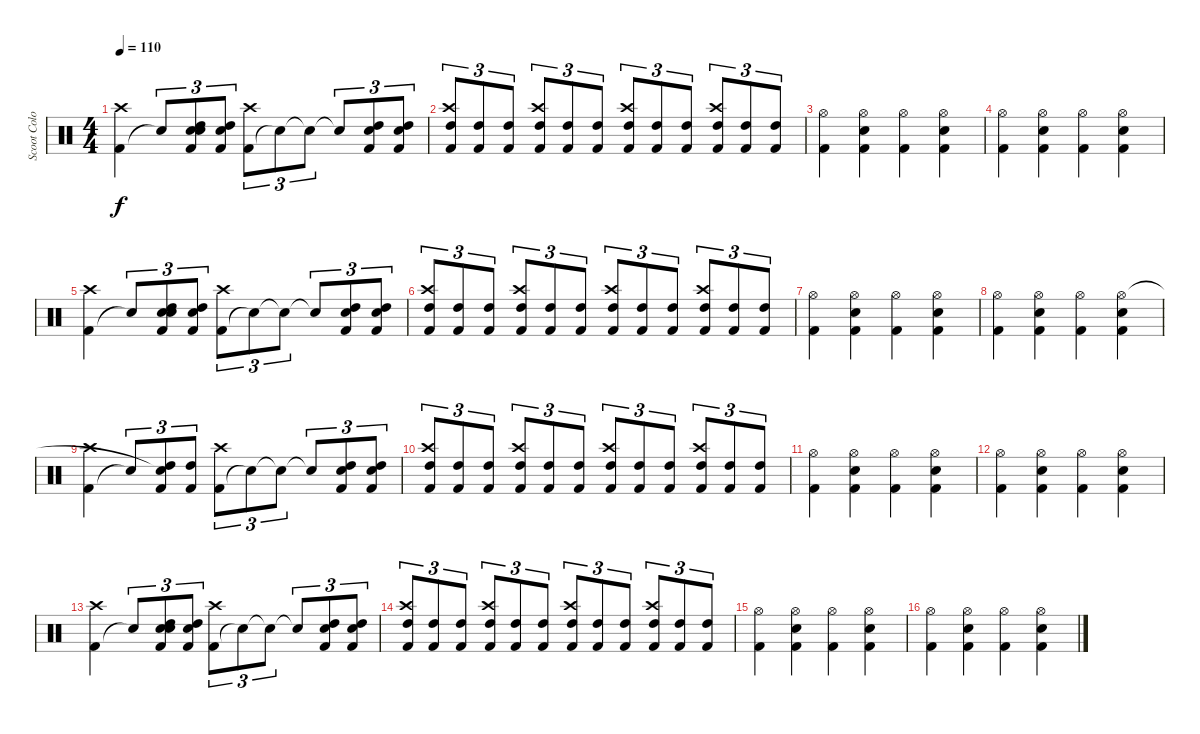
\track ("Scoot Colombus" "Scoot Colo") {instrument percussion}
\staff {score}
\articulation defaults
\ts (4 4)
\tempo 110
\clef neutral
\ks c
("Kick (hit) 2" "Crash high (hit)").4{dy f} "Snare (hit)"{t}.8{tu (3 2)} ("Kick (hit) 2" "High Tom (hit)" "Snare (hit) 2" "Snare (hit)").8{tu (3 2)} ("Kick (hit) 2" "High Tom (hit)" "Snare (hit) 2").8{tu (3 2)} ("Kick (hit) 2" "Crash high (hit)").8{tu (3 2)} "Snare (hit)"{t}.8{tu (3 2)} "Snare (hit)"{t}.8{tu (3 2)} "Snare (hit)"{t}.8{tu (3 2)} ("Kick (hit) 2" "High Tom (hit)" "Snare (hit) 2").8{tu (3 2)} ("Kick (hit) 2" "High Tom (hit)" "Snare (hit) 2").8{tu (3 2)} |
("Kick (hit) 2" "High Tom (hit)" "Crash high (hit)").8{tu (3 2)} ("Kick (hit) 2" "High Tom (hit)").8{tu (3 2)} ("Kick (hit) 2" "High Tom (hit)").8{tu (3 2)} ("Kick (hit) 2" "High Tom (hit)" "Crash high (hit)").8{tu (3 2)} ("Kick (hit) 2" "High Tom (hit)").8{tu (3 2)} ("Kick (hit) 2" "High Tom (hit)").8{tu (3 2)} ("Kick (hit) 2" "High Tom (hit)" "Crash high (hit)").8{tu (3 2)} ("Kick (hit) 2" "High Tom (hit)").8{tu (3 2)} ("Kick (hit) 2" "High Tom (hit)").8{tu (3 2)} ("Kick (hit) 2" "High Tom (hit)" "Crash high (hit)").8{tu (3 2)} ("Kick (hit) 2" "High Tom (hit)").8{tu (3 2)} ("Kick (hit) 2" "High Tom (hit)").8{tu (3 2)} |
("Kick (hit) 2" "Hi-Hat (open)").4 ("Kick (hit) 2" "Snare (hit) 2" "Hi-Hat (open)").4 ("Kick (hit) 2" "Hi-Hat (open)").4 ("Kick (hit) 2" "Snare (hit) 2" "Hi-Hat (open)").4 |
("Kick (hit) 2" "Hi-Hat (open)").4 ("Kick (hit) 2" "Snare (hit) 2" "Hi-Hat (open)").4 ("Kick (hit) 2" "Hi-Hat (open)").4 ("Kick (hit) 2" "Snare (hit) 2" "Hi-Hat (open)").4 |
("Kick (hit) 2" "Crash high (hit)").4 "Snare (hit)"{t}.8{tu (3 2)} ("Kick (hit) 2" "High Tom (hit)" "Snare (hit) 2" "Snare (hit)").8{tu (3 2)} ("Kick (hit) 2" "High Tom (hit)" "Snare (hit) 2").8{tu (3 2)} ("Kick (hit) 2" "Crash high (hit)").8{tu (3 2)} "Snare (hit)"{t}.8{tu (3 2)} "Snare (hit)"{t}.8{tu (3 2)} "Snare (hit)"{t}.8{tu (3 2)} ("Kick (hit) 2" "High Tom (hit)" "Snare (hit) 2").8{tu (3 2)} ("Kick (hit) 2" "High Tom (hit)" "Snare (hit) 2").8{tu (3 2)} |
("Kick (hit) 2" "High Tom (hit)" "Crash high (hit)").8{tu (3 2)} ("Kick (hit) 2" "High Tom (hit)").8{tu (3 2)} ("Kick (hit) 2" "High Tom (hit)").8{tu (3 2)} ("Kick (hit) 2" "High Tom (hit)" "Crash high (hit)").8{tu (3 2)} ("Kick (hit) 2" "High Tom (hit)").8{tu (3 2)} ("Kick (hit) 2" "High Tom (hit)").8{tu (3 2)} ("Kick (hit) 2" "High Tom (hit)" "Crash high (hit)").8{tu (3 2)} ("Kick (hit) 2" "High Tom (hit)").8{tu (3 2)} ("Kick (hit) 2" "High Tom (hit)").8{tu (3 2)} ("Kick (hit) 2" "High Tom (hit)" "Crash high (hit)").8{tu (3 2)} ("Kick (hit) 2" "High Tom (hit)").8{tu (3 2)} ("Kick (hit) 2" "High Tom (hit)").8{tu (3 2)} |
("Kick (hit) 2" "Hi-Hat (open)").4 ("Kick (hit) 2" "Snare (hit) 2" "Hi-Hat (open)").4 ("Kick (hit) 2" "Hi-Hat (open)").4 ("Kick (hit) 2" "Snare (hit) 2" "Hi-Hat (open)").4 |
("Kick (hit) 2" "Hi-Hat (open)").4 ("Kick (hit) 2" "Snare (hit) 2" "Hi-Hat (open)").4 ("Kick (hit) 2" "Hi-Hat (open)").4 ("Kick (hit) 2" "Snare (hit) 2" "Hi-Hat (open)").4 |
("Kick (hit) 2" "Crash high (hit)").4 "Snare (hit)"{t}.8{tu (3 2)} ("Kick (hit) 2" "High Tom (hit)" "Snare (hit)"{t}).8{tu (3 2)} ("Kick (hit) 2" "High Tom (hit)").8{tu (3 2)} ("Kick (hit) 2" "Crash high (hit)").8{tu (3 2)} "Snare (hit)"{t}.8{tu (3 2)} "Snare (hit)"{t}.8{tu (3 2)} "Snare (hit)"{t}.8{tu (3 2)} ("Kick (hit) 2" "High Tom (hit)" "Snare (hit) 2").8{tu (3 2)} ("Kick (hit) 2" "High Tom (hit)" "Snare (hit) 2").8{tu (3 2)} |
("Kick (hit) 2" "High Tom (hit)" "Crash high (hit)").8{tu (3 2)} ("Kick (hit) 2" "High Tom (hit)").8{tu (3 2)} ("Kick (hit) 2" "High Tom (hit)").8{tu (3 2)} ("Kick (hit) 2" "High Tom (hit)" "Crash high (hit)").8{tu (3 2)} ("Kick (hit) 2" "High Tom (hit)").8{tu (3 2)} ("Kick (hit) 2" "High Tom (hit)").8{tu (3 2)} ("Kick (hit) 2" "High Tom (hit)" "Crash high (hit)").8{tu (3 2)} ("Kick (hit) 2" "High Tom (hit)").8{tu (3 2)} ("Kick (hit) 2" "High Tom (hit)").8{tu (3 2)} ("Kick (hit) 2" "High Tom (hit)" "Crash high (hit)").8{tu (3 2)} ("Kick (hit) 2" "High Tom (hit)").8{tu (3 2)} ("Kick (hit) 2" "High Tom (hit)").8{tu (3 2)} |
("Kick (hit) 2" "Hi-Hat (open)").4 ("Kick (hit) 2" "Snare (hit) 2" "Hi-Hat (open)").4 ("Kick (hit) 2" "Hi-Hat (open)").4 ("Kick (hit) 2" "Snare (hit) 2" "Hi-Hat (open)").4 |
("Kick (hit) 2" "Hi-Hat (open)").4 ("Kick (hit) 2" "Snare (hit) 2" "Hi-Hat (open)").4 ("Kick (hit) 2" "Hi-Hat (open)").4 ("Kick (hit) 2" "Snare (hit) 2" "Hi-Hat (open)").4 |
("Kick (hit) 2" "Crash high (hit)").4 "Snare (hit)"{t}.8{tu (3 2)} ("Kick (hit) 2" "High Tom (hit)" "Snare (hit) 2" "Snare (hit)").8{tu (3 2)} ("Kick (hit) 2" "High Tom (hit)" "Snare (hit) 2").8{tu (3 2)} ("Kick (hit) 2" "Crash high (hit)").8{tu (3 2)} "Snare (hit)"{t}.8{tu (3 2)} "Snare (hit)"{t}.8{tu (3 2)} "Snare (hit)"{t}.8{tu (3 2)} ("Kick (hit) 2" "High Tom (hit)" "Snare (hit) 2").8{tu (3 2)} ("Kick (hit) 2" "High Tom (hit)" "Snare (hit) 2").8{tu (3 2)} |
("Kick (hit) 2" "High Tom (hit)" "Crash high (hit)").8{tu (3 2)} ("Kick (hit) 2" "High Tom (hit)").8{tu (3 2)} ("Kick (hit) 2" "High Tom (hit)").8{tu (3 2)} ("Kick (hit) 2" "High Tom (hit)" "Crash high (hit)").8{tu (3 2)} ("Kick (hit) 2" "High Tom (hit)").8{tu (3 2)} ("Kick (hit) 2" "High Tom (hit)").8{tu (3 2)} ("Kick (hit) 2" "High Tom (hit)" "Crash high (hit)").8{tu (3 2)} ("Kick (hit) 2" "High Tom (hit)").8{tu (3 2)} ("Kick (hit) 2" "High Tom (hit)").8{tu (3 2)} ("Kick (hit) 2" "High Tom (hit)" "Crash high (hit)").8{tu (3 2)} ("Kick (hit) 2" "High Tom (hit)").8{tu (3 2)} ("Kick (hit) 2" "High Tom (hit)").8{tu (3 2)} |
("Kick (hit) 2" "Hi-Hat (open)").4 ("Kick (hit) 2" "Snare (hit) 2" "Hi-Hat (open)").4 ("Kick (hit) 2" "Hi-Hat (open)").4 ("Kick (hit) 2" "Snare (hit) 2" "Hi-Hat (open)").4 |
("Kick (hit) 2" "Hi-Hat (open)").4 ("Kick (hit) 2" "Snare (hit) 2" "Hi-Hat (open)").4 ("Kick (hit) 2" "Hi-Hat (open)").4 ("Kick (hit) 2" "Snare (hit) 2" "Hi-Hat (open)").4
